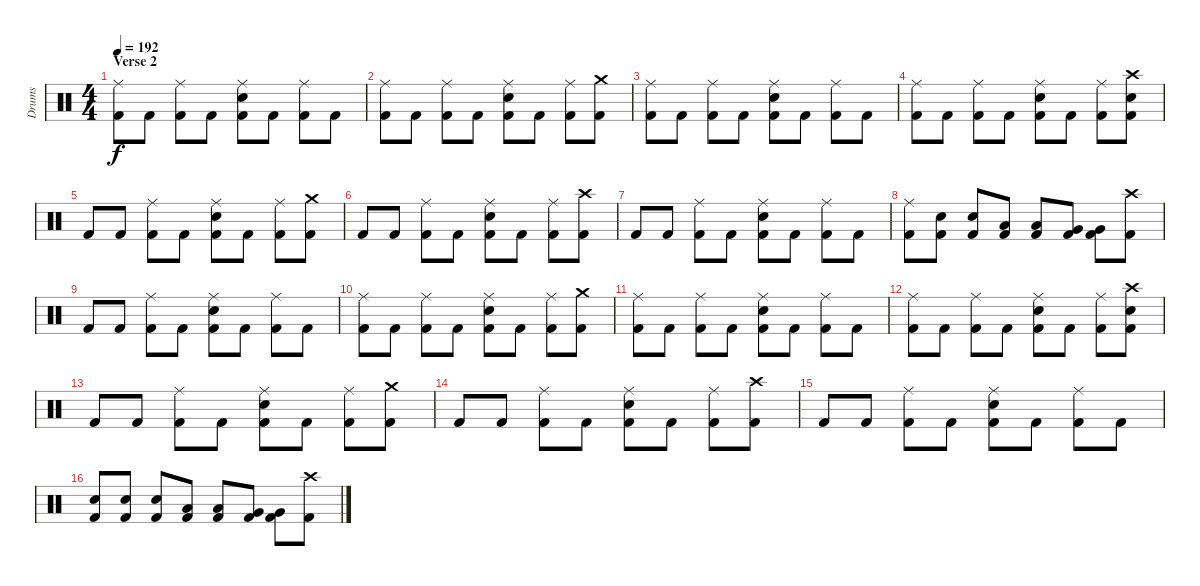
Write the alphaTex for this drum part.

\track ("Drums" "Drums") {instrument percussion}
\staff {score}
\articulation defaults
\ts (4 4)
\section ("" "Verse 2")
\tempo 192
\clef neutral
\ks c
("Ride (middle)" "Kick (hit) 2").8{dy f} "Kick (hit) 2".8 ("Ride (middle)" "Kick (hit) 2").8 "Kick (hit) 2".8 ("Ride (middle)" "Snare (hit) 2" "Kick (hit) 2").8 "Kick (hit) 2".8 ("Ride (middle)" "Kick (hit) 2").8 "Kick (hit) 2".8 |
("Ride (middle)" "Kick (hit) 2").8 "Kick (hit) 2".8 ("Ride (middle)" "Kick (hit) 2").8 "Kick (hit) 2".8 ("Ride (middle)" "Snare (hit) 2" "Kick (hit) 2").8 "Kick (hit) 2".8 ("Ride (middle)" "Kick (hit) 2").8 ("Crash medium (hit)" "Kick (hit) 2").8 |
("Ride (middle)" "Kick (hit) 2").8 "Kick (hit) 2".8 ("Ride (middle)" "Kick (hit) 2").8 "Kick (hit) 2".8 ("Ride (middle)" "Snare (hit) 2" "Kick (hit) 2").8 "Kick (hit) 2".8 ("Ride (middle)" "Kick (hit) 2").8 "Kick (hit) 2".8 |
("Ride (middle)" "Kick (hit) 2").8 "Kick (hit) 2".8 ("Ride (middle)" "Kick (hit) 2").8 "Kick (hit) 2".8 ("Ride (middle)" "Snare (hit) 2" "Kick (hit) 2").8 "Kick (hit) 2".8 ("Ride (middle)" "Kick (hit) 2").8 ("Crash high (hit)" "Snare (hit) 2" "Kick (hit) 2").8 |
"Kick (hit) 2".8 "Kick (hit) 2".8 ("Ride (middle)" "Kick (hit) 2").8 "Kick (hit) 2".8 ("Ride (middle)" "Snare (hit) 2" "Kick (hit) 2").8 "Kick (hit) 2".8 ("Ride (middle)" "Kick (hit) 2").8 ("Crash medium (hit)" "Kick (hit) 2").8 |
"Kick (hit) 2".8 "Kick (hit) 2".8 ("Ride (middle)" "Kick (hit) 2").8 "Kick (hit) 2".8 ("Ride (middle)" "Snare (hit) 2" "Kick (hit) 2").8 "Kick (hit) 2".8 ("Ride (middle)" "Kick (hit) 2").8 ("Crash high (hit)" "Kick (hit) 2").8 |
"Kick (hit) 2".8 "Kick (hit) 2".8 ("Ride (middle)" "Kick (hit) 2").8 "Kick (hit) 2".8 ("Ride (middle)" "Snare (hit) 2" "Kick (hit) 2").8 "Kick (hit) 2".8 ("Ride (middle)" "Kick (hit) 2").8 "Kick (hit) 2".8 |
("Ride (middle)" "Kick (hit) 2").8 ("Snare (hit) 2" "Kick (hit) 2").8 ("Snare (hit) 2" "Kick (hit) 2").8 ("Low Tom (hit)" "Kick (hit) 2").8 ("Low Tom (hit)" "Kick (hit) 2").8 ("Very Low Tom (hit)" "Kick (hit) 2").8 ("Very Low Tom (hit)" "Kick (hit) 2").8 ("Crash high (hit)" "Kick (hit) 2").8 |
"Kick (hit) 2".8 "Kick (hit) 2".8 ("Ride (middle)" "Kick (hit) 2").8 "Kick (hit) 2".8 ("Ride (middle)" "Snare (hit) 2" "Kick (hit) 2").8 "Kick (hit) 2".8 ("Ride (middle)" "Kick (hit) 2").8 "Kick (hit) 2".8 |
("Ride (middle)" "Kick (hit) 2").8 "Kick (hit) 2".8 ("Ride (middle)" "Kick (hit) 2").8 "Kick (hit) 2".8 ("Ride (middle)" "Snare (hit) 2" "Kick (hit) 2").8 "Kick (hit) 2".8 ("Ride (middle)" "Kick (hit) 2").8 ("Crash medium (hit)" "Kick (hit) 2").8 |
("Ride (middle)" "Kick (hit) 2").8 "Kick (hit) 2".8 ("Ride (middle)" "Kick (hit) 2").8 "Kick (hit) 2".8 ("Ride (middle)" "Snare (hit) 2" "Kick (hit) 2").8 "Kick (hit) 2".8 ("Ride (middle)" "Kick (hit) 2").8 "Kick (hit) 2".8 |
("Ride (middle)" "Kick (hit) 2").8 "Kick (hit) 2".8 ("Ride (middle)" "Kick (hit) 2").8 "Kick (hit) 2".8 ("Ride (middle)" "Snare (hit) 2" "Kick (hit) 2").8 "Kick (hit) 2".8 ("Ride (middle)" "Kick (hit) 2").8 ("Crash high (hit)" "Snare (hit) 2" "Kick (hit) 2").8 |
"Kick (hit) 2".8 "Kick (hit) 2".8 ("Ride (middle)" "Kick (hit) 2").8 "Kick (hit) 2".8 ("Ride (middle)" "Snare (hit) 2" "Kick (hit) 2").8 "Kick (hit) 2".8 ("Ride (middle)" "Kick (hit) 2").8 ("Crash medium (hit)" "Kick (hit) 2").8 |
"Kick (hit) 2".8 "Kick (hit) 2".8 ("Ride (middle)" "Kick (hit) 2").8 "Kick (hit) 2".8 ("Ride (middle)" "Snare (hit) 2" "Kick (hit) 2").8 "Kick (hit) 2".8 ("Ride (middle)" "Kick (hit) 2").8 ("Crash high (hit)" "Kick (hit) 2").8 |
"Kick (hit) 2".8 "Kick (hit) 2".8 ("Ride (middle)" "Kick (hit) 2").8 "Kick (hit) 2".8 ("Ride (middle)" "Snare (hit) 2" "Kick (hit) 2").8 "Kick (hit) 2".8 ("Ride (middle)" "Kick (hit) 2").8 "Kick (hit) 2".8 |
("Snare (hit) 2" "Kick (hit) 2").8 ("Snare (hit) 2" "Kick (hit) 2").8 ("Snare (hit) 2" "Kick (hit) 2").8 ("Low Tom (hit)" "Kick (hit) 2").8 ("Low Tom (hit)" "Kick (hit) 2").8 ("Very Low Tom (hit)" "Kick (hit) 2").8 ("Very Low Tom (hit)" "Kick (hit) 2").8 ("Crash high (hit)" "Kick (hit) 2").8
